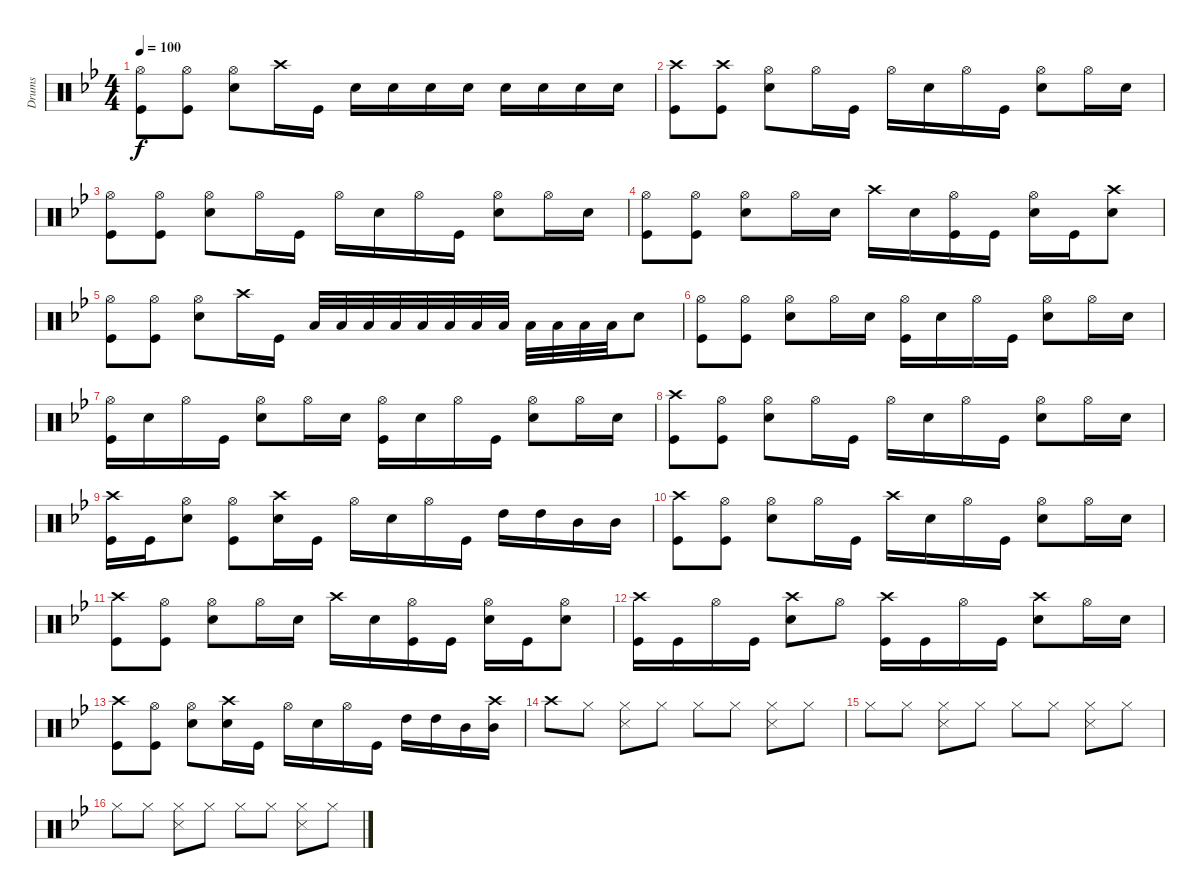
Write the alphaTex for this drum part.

\track ("Drums" "Drums") {instrument percussion}
\staff {score}
\articulation defaults
\ts (4 4)
\tempo 100
\clef neutral
\ks gminor
("Hi-Hat (open)" "Kick (hit)").8{dy f} ("Hi-Hat (open)" "Kick (hit)").8 ("Hi-Hat (open)" "Snare (hit) 2").8 "Crash high (hit)".16 "Kick (hit)".16 "Snare (hit) 2".16 "Snare (hit) 2".16 "Snare (hit) 2".16 "Snare (hit) 2".16 "Snare (hit) 2".16 "Snare (hit) 2".16 "Snare (hit) 2".16 "Snare (hit) 2".16 |
("Crash high (hit)" "Kick (hit)").8 ("Crash high (hit)" "Kick (hit)").8 ("Hi-Hat (open)" "Snare (hit) 2").8 "Hi-Hat (open)".16 "Kick (hit)".16 "Hi-Hat (open)".16 "Snare (hit) 2".16 "Hi-Hat (open)".16 "Kick (hit)".16 ("Hi-Hat (open)" "Snare (hit) 2").8 "Hi-Hat (open)".16 "Snare (hit) 2".16 |
("Hi-Hat (open)" "Kick (hit)").8 ("Hi-Hat (open)" "Kick (hit)").8 ("Hi-Hat (open)" "Snare (hit) 2").8 "Hi-Hat (open)".16 "Kick (hit)".16 "Hi-Hat (open)".16 "Snare (hit) 2".16 "Hi-Hat (open)".16 "Kick (hit)".16 ("Hi-Hat (open)" "Snare (hit) 2").8 "Hi-Hat (open)".16 "Snare (hit) 2".16 |
("Hi-Hat (open)" "Kick (hit)").8 ("Hi-Hat (open)" "Kick (hit)").8 ("Hi-Hat (open)" "Snare (hit) 2").8 "Hi-Hat (open)".16 "Snare (hit) 2".16 "Crash high (hit)".16 "Snare (hit) 2".16 ("Hi-Hat (open)" "Kick (hit)").16 "Kick (hit)".16 ("Hi-Hat (open)" "Snare (hit) 2").16 "Kick (hit)".16 ("Crash high (hit)" "Snare (hit) 2").8 |
("Hi-Hat (open)" "Kick (hit)").8 ("Hi-Hat (open)" "Kick (hit)").8 ("Hi-Hat (open)" "Snare (hit) 2").8 "Crash high (hit)".16 "Kick (hit)".16 "Low Floor Tom (hit)".32 "Low Floor Tom (hit)".32 "Low Floor Tom (hit)".32 "Low Floor Tom (hit)".32 "Low Floor Tom (hit)".32 "Low Floor Tom (hit)".32 "Low Floor Tom (hit)".32 "Low Floor Tom (hit)".32 "Low Floor Tom (hit)".32 "Low Floor Tom (hit)".32 "Low Floor Tom (hit)".32 "Low Floor Tom (hit)".32 "Snare (hit) 2".8 |
("Hi-Hat (open)" "Kick (hit)").8 ("Hi-Hat (open)" "Kick (hit)").8 ("Hi-Hat (open)" "Snare (hit) 2").8 "Hi-Hat (open)".16 "Snare (hit) 2".16 ("Hi-Hat (open)" "Kick (hit)").16 "Snare (hit) 2".16 "Hi-Hat (open)".16 "Kick (hit)".16 ("Hi-Hat (open)" "Snare (hit) 2").8 "Hi-Hat (open)".16 "Snare (hit) 2".16 |
("Hi-Hat (open)" "Kick (hit)").16 "Snare (hit) 2".16 "Hi-Hat (open)".16 "Kick (hit)".16 ("Hi-Hat (open)" "Snare (hit) 2").8 "Hi-Hat (open)".16 "Snare (hit) 2".16 ("Hi-Hat (open)" "Kick (hit)").16 "Snare (hit) 2".16 "Hi-Hat (open)".16 "Kick (hit)".16 ("Hi-Hat (open)" "Snare (hit) 2").8 "Hi-Hat (open)".16 "Snare (hit) 2".16 |
("Crash high (hit)" "Kick (hit)").8 ("Hi-Hat (open)" "Kick (hit)").8 ("Hi-Hat (open)" "Snare (hit) 2").8 "Hi-Hat (open)".16 "Kick (hit)".16 "Hi-Hat (open)".16 "Snare (hit) 2".16 "Hi-Hat (open)".16 "Kick (hit)".16 ("Hi-Hat (open)" "Snare (hit) 2").8 "Hi-Hat (open)".16 "Snare (hit) 2".16 |
("Crash high (hit)" "Kick (hit)").16 "Kick (hit)".16 ("Hi-Hat (open)" "Snare (hit) 2").8 ("Hi-Hat (open)" "Kick (hit)").8 ("Crash high (hit)" "Snare (hit) 2").16 "Kick (hit)".16 "Hi-Hat (open)".16 "Snare (hit) 2".16 "Hi-Hat (open)".16 "Kick (hit)".16 "High Tom (hit)".16 "High Tom (hit)".16 "Mid Tom (hit)".16 "Mid Tom (hit)".16 |
("Crash high (hit)" "Kick (hit)").8 ("Hi-Hat (open)" "Kick (hit)").8 ("Hi-Hat (open)" "Snare (hit) 2").8 "Hi-Hat (open)".16 "Kick (hit)".16 "Crash high (hit)".16 "Snare (hit) 2".16 "Hi-Hat (open)".16 "Kick (hit)".16 ("Hi-Hat (open)" "Snare (hit) 2").8 "Hi-Hat (open)".16 "Snare (hit) 2".16 |
("Crash high (hit)" "Kick (hit)").8 ("Hi-Hat (open)" "Kick (hit)").8 ("Hi-Hat (open)" "Snare (hit) 2").8 "Hi-Hat (open)".16 "Snare (hit) 2".16 "Crash high (hit)".16 "Snare (hit) 2".16 ("Hi-Hat (open)" "Kick (hit)").16 "Kick (hit)".16 ("Hi-Hat (open)" "Snare (hit) 2").16 "Kick (hit)".16 ("Hi-Hat (open)" "Snare (hit) 2").8 |
("Crash high (hit)" "Kick (hit)").16 "Kick (hit)".16 "Hi-Hat (open)".16 "Kick (hit)".16 ("Crash high (hit)" "Snare (hit) 2").8 "Hi-Hat (open)".8 ("Crash high (hit)" "Kick (hit)").16 "Kick (hit)".16 "Hi-Hat (open)".16 "Kick (hit)".16 ("Crash high (hit)" "Snare (hit) 2").8 "Hi-Hat (open)".16 "Snare (hit) 2".16 |
("Crash high (hit)" "Kick (hit)").8 ("Hi-Hat (open)" "Kick (hit)").8 ("Hi-Hat (open)" "Snare (hit) 2").8 ("Crash high (hit)" "Snare (hit) 2").16 "Kick (hit)".16 "Hi-Hat (open)".16 "Snare (hit) 2".16 "Hi-Hat (open)".16 "Kick (hit)".16 "High Tom (hit)".16 "High Tom (hit)".16 "Mid Tom (hit)".16 ("Crash high (hit)" "Mid Tom (hit)").16 |
\ks bb "Crash high (hit)".8 "Hi-Hat (closed)".8
("Hi-Hat (closed)" "Snare (side stick) 3").8 "Hi-Hat (closed)".8 "Hi-Hat (closed)".8 "Hi-Hat (closed)".8 ("Hi-Hat (closed)" "Snare (side stick) 3").8 "Hi-Hat (closed)".8 |
"Hi-Hat (closed)".8 "Hi-Hat (closed)".8 ("Hi-Hat (closed)" "Snare (side stick) 3").8 "Hi-Hat (closed)".8 "Hi-Hat (closed)".8 "Hi-Hat (closed)".8 ("Hi-Hat (closed)" "Snare (side stick) 3").8 "Hi-Hat (closed)".8 |
"Hi-Hat (closed)".8 "Hi-Hat (closed)".8 ("Hi-Hat (closed)" "Snare (side stick) 3").8 "Hi-Hat (closed)".8 "Hi-Hat (closed)".8 "Hi-Hat (closed)".8 ("Hi-Hat (closed)" "Snare (side stick) 3").8 "Hi-Hat (closed)".8
